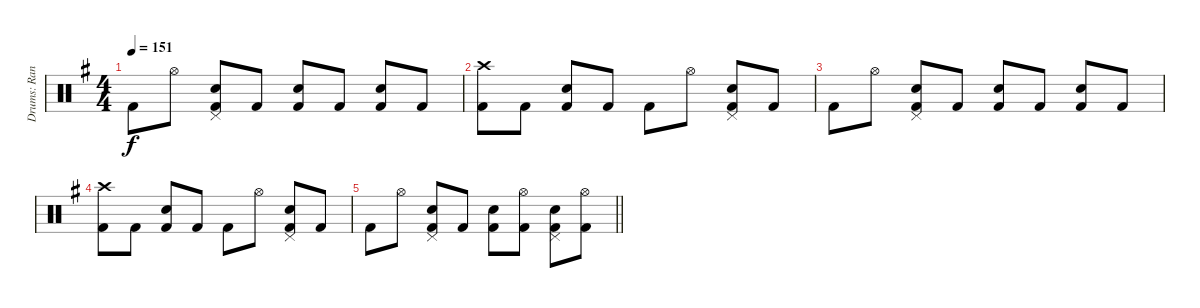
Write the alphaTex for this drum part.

\track ("Drums: Randy" "Drums: Ran") {instrument percussion}
\staff {score}
\articulation defaults
\ts (4 4)
\tempo 151
\clef neutral
\ks g "Kick (hit) 2".8{dy f} "Hi-Hat (open)".8
("Pedal Hi-Hat (hit)" "Snare (hit) 2" "Kick (hit) 2").8 "Kick (hit) 2".8 ("Snare (hit) 2" "Kick (hit) 2").8 "Kick (hit) 2".8 ("Snare (hit) 2" "Kick (hit) 2").8 "Kick (hit) 2".8 |
("Crash high (hit)" "Kick (hit) 2").8 "Kick (hit) 2".8 ("Snare (hit) 2" "Kick (hit) 2").8 "Kick (hit) 2".8 "Kick (hit) 2".8 "Hi-Hat (open)".8 ("Pedal Hi-Hat (hit)" "Snare (hit) 2" "Kick (hit) 2").8 "Kick (hit) 2".8 |
"Kick (hit) 2".8 "Hi-Hat (open)".8 ("Pedal Hi-Hat (hit)" "Snare (hit) 2" "Kick (hit) 2").8 "Kick (hit) 2".8 ("Snare (hit) 2" "Kick (hit) 2").8 "Kick (hit) 2".8 ("Snare (hit) 2" "Kick (hit) 2").8 "Kick (hit) 2".8 |
("Crash high (hit)" "Kick (hit) 2").8 "Kick (hit) 2".8 ("Snare (hit) 2" "Kick (hit) 2").8 "Kick (hit) 2".8 "Kick (hit) 2".8 "Hi-Hat (open)".8 ("Pedal Hi-Hat (hit)" "Snare (hit) 2" "Kick (hit) 2").8 "Kick (hit) 2".8 |
\barLineRight lightlight "Kick (hit) 2".8 "Hi-Hat (open)".8
("Pedal Hi-Hat (hit)" "Snare (hit) 2" "Kick (hit) 2").8 "Kick (hit) 2".8 ("Snare (hit) 2" "Kick (hit) 2").8 ("Hi-Hat (open)" "Kick (hit) 2").8 ("Pedal Hi-Hat (hit)" "Snare (hit) 2" "Kick (hit) 2").8 ("Hi-Hat (open)" "Kick (hit) 2").8
